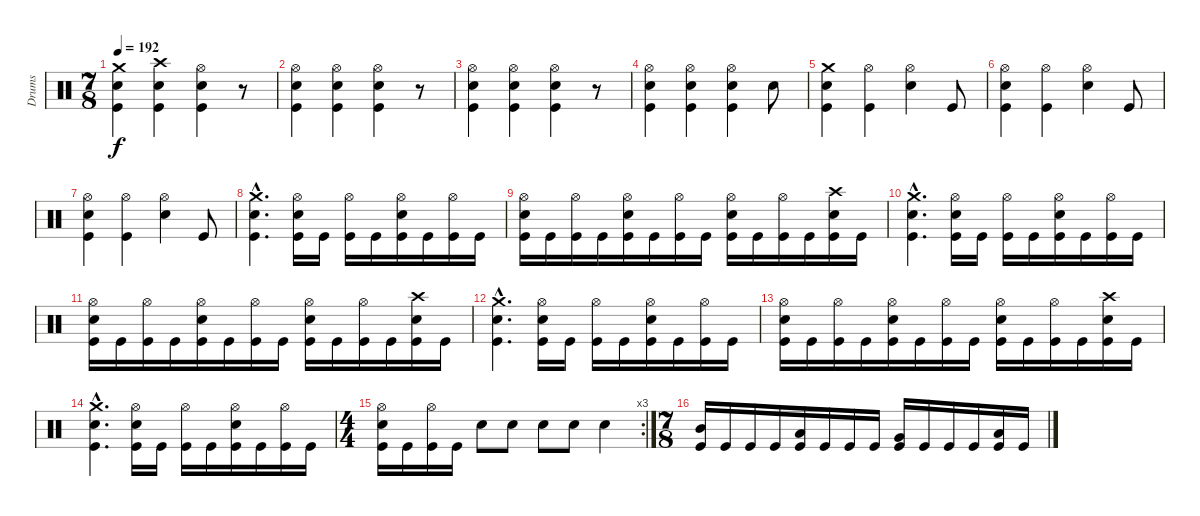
\track ("Drums" "Drums") {instrument percussion}
\staff {score}
\articulation defaults
\ts (7 8)
\tempo 192
\clef neutral
\ks c
("Crash medium (hit)" "Snare (hit) 2" "Kick (hit)").4{dy f} ("Crash high (hit)" "Snare (hit) 2" "Kick (hit)").4 ("Hi-Hat (open)" "Snare (hit) 2" "Kick (hit)").4 r.8 |
("Hi-Hat (open)" "Snare (hit) 2" "Kick (hit)").4 ("Hi-Hat (open)" "Snare (hit) 2" "Kick (hit)").4 ("Hi-Hat (open)" "Snare (hit) 2" "Kick (hit)").4 r.8 |
("Hi-Hat (open)" "Snare (hit) 2" "Kick (hit)").4 ("Hi-Hat (open)" "Snare (hit) 2" "Kick (hit)").4 ("Hi-Hat (open)" "Snare (hit) 2" "Kick (hit)").4 r.8 |
("Hi-Hat (open)" "Snare (hit) 2" "Kick (hit)").4 ("Hi-Hat (open)" "Snare (hit) 2" "Kick (hit)").4 ("Hi-Hat (open)" "Snare (hit) 2" "Kick (hit)").4 "Snare (hit) 2".8 |
("Crash medium (hit)" "Snare (hit) 2" "Kick (hit)").4 ("Hi-Hat (open)" "Kick (hit)").4 ("Hi-Hat (open)" "Snare (hit) 2").4 "Kick (hit)".8 |
("Hi-Hat (open)" "Snare (hit) 2" "Kick (hit)").4 ("Hi-Hat (open)" "Kick (hit)").4 ("Hi-Hat (open)" "Snare (hit) 2").4 "Kick (hit)".8 |
("Hi-Hat (open)" "Snare (hit) 2" "Kick (hit)").4 ("Hi-Hat (open)" "Kick (hit)").4 ("Hi-Hat (open)" "Snare (hit) 2").4 "Kick (hit)".8 |
("Crash medium (hit)"{hac} "Snare (hit) 2"{hac} "Kick (hit)"{hac}).4{d} ("Hi-Hat (open)" "Snare (hit) 2" "Kick (hit)").16 "Kick (hit)".16 ("Hi-Hat (open)" "Kick (hit)").16 "Kick (hit)".16 ("Hi-Hat (open)" "Snare (hit) 2" "Kick (hit)").16 "Kick (hit)".16 ("Hi-Hat (open)" "Kick (hit)").16 "Kick (hit)".16 |
("Hi-Hat (open)" "Snare (hit) 2" "Kick (hit)").16 "Kick (hit)".16 ("Hi-Hat (open)" "Kick (hit)").16 "Kick (hit)".16 ("Hi-Hat (open)" "Snare (hit) 2" "Kick (hit)").16 "Kick (hit)".16 ("Hi-Hat (open)" "Kick (hit)").16 "Kick (hit)".16 ("Hi-Hat (open)" "Snare (hit) 2" "Kick (hit)").16 "Kick (hit)".16 ("Hi-Hat (open)" "Kick (hit)").16 "Kick (hit)".16 ("Crash high (hit)" "Snare (hit) 2" "Kick (hit)").16 "Kick (hit)".16 |
("Crash medium (hit)"{hac} "Snare (hit) 2"{hac} "Kick (hit)"{hac}).4{d} ("Hi-Hat (open)" "Snare (hit) 2" "Kick (hit)").16 "Kick (hit)".16 ("Hi-Hat (open)" "Kick (hit)").16 "Kick (hit)".16 ("Hi-Hat (open)" "Snare (hit) 2" "Kick (hit)").16 "Kick (hit)".16 ("Hi-Hat (open)" "Kick (hit)").16 "Kick (hit)".16 |
("Hi-Hat (open)" "Snare (hit) 2" "Kick (hit)").16 "Kick (hit)".16 ("Hi-Hat (open)" "Kick (hit)").16 "Kick (hit)".16 ("Hi-Hat (open)" "Snare (hit) 2" "Kick (hit)").16 "Kick (hit)".16 ("Hi-Hat (open)" "Kick (hit)").16 "Kick (hit)".16 ("Hi-Hat (open)" "Snare (hit) 2" "Kick (hit)").16 "Kick (hit)".16 ("Hi-Hat (open)" "Kick (hit)").16 "Kick (hit)".16 ("Crash high (hit)" "Snare (hit) 2" "Kick (hit)").16 "Kick (hit)".16 |
("Crash medium (hit)"{hac} "Snare (hit) 2"{hac} "Kick (hit)"{hac}).4{d} ("Hi-Hat (open)" "Snare (hit) 2" "Kick (hit)").16 "Kick (hit)".16 ("Hi-Hat (open)" "Kick (hit)").16 "Kick (hit)".16 ("Hi-Hat (open)" "Snare (hit) 2" "Kick (hit)").16 "Kick (hit)".16 ("Hi-Hat (open)" "Kick (hit)").16 "Kick (hit)".16 |
("Hi-Hat (open)" "Snare (hit) 2" "Kick (hit)").16 "Kick (hit)".16 ("Hi-Hat (open)" "Kick (hit)").16 "Kick (hit)".16 ("Hi-Hat (open)" "Snare (hit) 2" "Kick (hit)").16 "Kick (hit)".16 ("Hi-Hat (open)" "Kick (hit)").16 "Kick (hit)".16 ("Hi-Hat (open)" "Snare (hit) 2" "Kick (hit)").16 "Kick (hit)".16 ("Hi-Hat (open)" "Kick (hit)").16 "Kick (hit)".16 ("Crash high (hit)" "Snare (hit) 2" "Kick (hit)").16 "Kick (hit)".16 |
("Crash medium (hit)"{hac} "Snare (hit) 2"{hac} "Kick (hit)"{hac}).4{d} ("Hi-Hat (open)" "Snare (hit) 2" "Kick (hit)").16 "Kick (hit)".16 ("Hi-Hat (open)" "Kick (hit)").16 "Kick (hit)".16 ("Hi-Hat (open)" "Snare (hit) 2" "Kick (hit)").16 "Kick (hit)".16 ("Hi-Hat (open)" "Kick (hit)").16 "Kick (hit)".16 |
\rc 3
\ts (4 4)
("Hi-Hat (open)" "Snare (hit) 2" "Kick (hit)").16 "Kick (hit)".16 ("Hi-Hat (open)" "Kick (hit)").16 "Kick (hit)".16 "Snare (hit) 2".8 "Snare (hit) 2".8 "Snare (hit) 2".8 "Snare (hit) 2".8 "Snare (hit) 2".4 |
\ts (7 8)
("Mid Tom (hit)" "Kick (hit)").16 "Kick (hit)".16 "Kick (hit)".16 "Kick (hit)".16 ("Low Tom (hit)" "Kick (hit)").16 "Kick (hit)".16 "Kick (hit)".16 "Kick (hit)".16 ("Very Low Tom (hit)" "Kick (hit)").16 "Kick (hit)".16 "Kick (hit)".16 "Kick (hit)".16 ("Low Floor Tom (hit)" "Kick (hit)").16 "Kick (hit)".16
